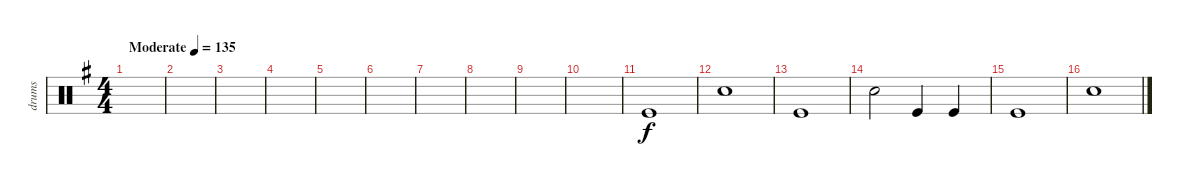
\track ("drums" "drums") {instrument percussion}
\staff {score}
\articulation defaults
\ts (4 4)
\section ("" "")
\tempo (135 "Moderate")
\clef neutral
\ks eminor
|
|
|
|
|
|
|
|
|
|
"Kick (hit)".1 |
"Electric Snare (hit)".1 |
"Kick (hit)".1 |
"Electric Snare (hit)".2 "Kick (hit)".4 "Kick (hit)".4 |
"Kick (hit)".1 |
"Electric Snare (hit)".1
